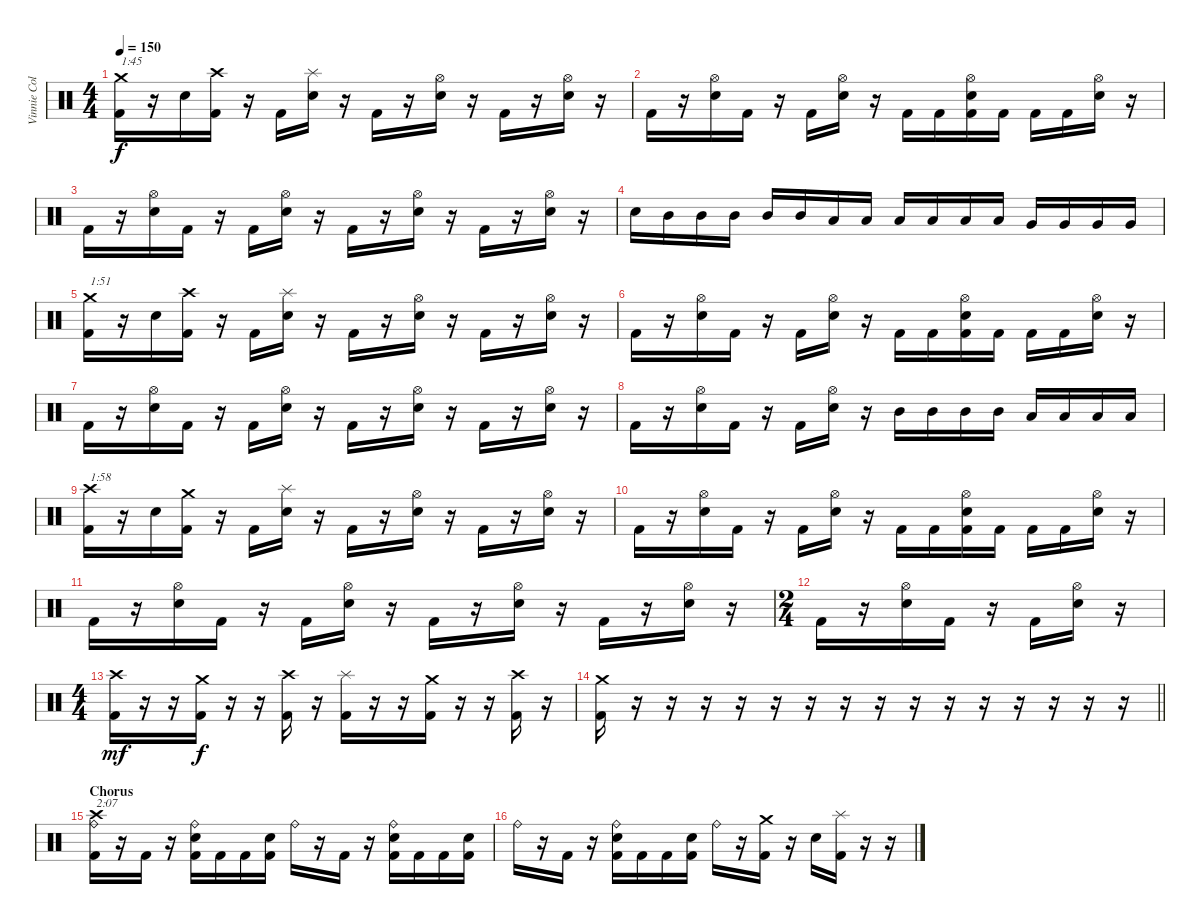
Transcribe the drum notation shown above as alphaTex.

\track ("Vinnie Colaiuta" "Vinnie Col") {instrument percussion}
\staff {score}
\articulation defaults
\ts (4 4)
\tempo 150
\clef neutral
\ks c
("Crash medium (hit)" "Kick (hit) 2").16{txt "1:45" dy f} r.16 "Electric Snare (hit)".16 ("Crash high (hit)" "Kick (hit) 2").16 r.16 "Kick (hit) 2".16 ("Splash (hit)" "Electric Snare (hit)").16 r.16 "Kick (hit) 2".16 r.16 ("Hi-Hat (open)" "Electric Snare (hit)").16 r.16 "Kick (hit) 2".16 r.16 ("Hi-Hat (open)" "Electric Snare (hit)").16 r.16 |
"Kick (hit) 2".16 r.16 ("Hi-Hat (open)" "Electric Snare (hit)").16 "Kick (hit) 2".16 r.16 "Kick (hit) 2".16 ("Hi-Hat (open)" "Electric Snare (hit)").16 r.16 "Kick (hit) 2".16 "Kick (hit) 2".16 ("Hi-Hat (open)" "Electric Snare (hit)" "Kick (hit) 2").16 "Kick (hit) 2".16 "Kick (hit) 2".16 "Kick (hit) 2".16 ("Hi-Hat (open)" "Electric Snare (hit)").16 r.16 |
"Kick (hit) 2".16 r.16 ("Hi-Hat (open)" "Electric Snare (hit)").16 "Kick (hit) 2".16 r.16 "Kick (hit) 2".16 ("Hi-Hat (open)" "Electric Snare (hit)").16 r.16 "Kick (hit) 2".16 r.16 ("Hi-Hat (open)" "Electric Snare (hit)").16 r.16 "Kick (hit) 2".16 r.16 ("Hi-Hat (open)" "Electric Snare (hit)").16 r.16 |
"Electric Snare (hit)".16 "Mid Tom (hit)".16 "Mid Tom (hit)".16 "Mid Tom (hit)".16 "Mid Tom (hit)".16 "Mid Tom (hit)".16 "Low Tom (hit)".16 "Low Tom (hit)".16 "Low Tom (hit)".16 "Low Tom (hit)".16 "Low Tom (hit)".16 "Low Tom (hit)".16 "Very Low Tom (hit)".16 "Very Low Tom (hit)".16 "Very Low Tom (hit)".16 "Very Low Tom (hit)".16 |
("Crash medium (hit)" "Kick (hit) 2").16{txt "1:51"} r.16 "Electric Snare (hit)".16 ("Crash high (hit)" "Kick (hit) 2").16 r.16 "Kick (hit) 2".16 ("Splash (hit)" "Electric Snare (hit)").16 r.16 "Kick (hit) 2".16 r.16 ("Hi-Hat (open)" "Electric Snare (hit)").16 r.16 "Kick (hit) 2".16 r.16 ("Hi-Hat (open)" "Electric Snare (hit)").16 r.16 |
"Kick (hit) 2".16 r.16 ("Hi-Hat (open)" "Electric Snare (hit)").16 "Kick (hit) 2".16 r.16 "Kick (hit) 2".16 ("Hi-Hat (open)" "Electric Snare (hit)").16 r.16 "Kick (hit) 2".16 "Kick (hit) 2".16 ("Hi-Hat (open)" "Electric Snare (hit)" "Kick (hit) 2").16 "Kick (hit) 2".16 "Kick (hit) 2".16 "Kick (hit) 2".16 ("Hi-Hat (open)" "Electric Snare (hit)").16 r.16 |
"Kick (hit) 2".16 r.16 ("Hi-Hat (open)" "Electric Snare (hit)").16 "Kick (hit) 2".16 r.16 "Kick (hit) 2".16 ("Hi-Hat (open)" "Electric Snare (hit)").16 r.16 "Kick (hit) 2".16 r.16 ("Hi-Hat (open)" "Electric Snare (hit)").16 r.16 "Kick (hit) 2".16 r.16 ("Hi-Hat (open)" "Electric Snare (hit)").16 r.16 |
"Kick (hit) 2".16 r.16 ("Hi-Hat (open)" "Electric Snare (hit)").16 "Kick (hit) 2".16 r.16 "Kick (hit) 2".16 ("Hi-Hat (open)" "Electric Snare (hit)").16 r.16 "Mid Tom (hit)".16 "Mid Tom (hit)".16 "Mid Tom (hit)".16 "Mid Tom (hit)".16 "Low Tom (hit)".16 "Low Tom (hit)".16 "Low Tom (hit)".16 "Low Tom (hit)".16 |
("Crash high (hit)" "Kick (hit) 2").16{txt "1:58"} r.16 "Electric Snare (hit)".16 ("Crash medium (hit)" "Kick (hit) 2").16 r.16 "Kick (hit) 2".16 ("Splash (hit)" "Electric Snare (hit)").16 r.16 "Kick (hit) 2".16 r.16 ("Hi-Hat (open)" "Electric Snare (hit)").16 r.16 "Kick (hit) 2".16 r.16 ("Hi-Hat (open)" "Electric Snare (hit)").16 r.16 |
"Kick (hit) 2".16 r.16 ("Hi-Hat (open)" "Electric Snare (hit)").16 "Kick (hit) 2".16 r.16 "Kick (hit) 2".16 ("Hi-Hat (open)" "Electric Snare (hit)").16 r.16 "Kick (hit) 2".16 "Kick (hit) 2".16 ("Hi-Hat (open)" "Electric Snare (hit)" "Kick (hit) 2").16 "Kick (hit) 2".16 "Kick (hit) 2".16 "Kick (hit) 2".16 ("Hi-Hat (open)" "Electric Snare (hit)").16 r.16 |
"Kick (hit) 2".16 r.16 ("Hi-Hat (open)" "Electric Snare (hit)").16 "Kick (hit) 2".16 r.16 "Kick (hit) 2".16 ("Hi-Hat (open)" "Electric Snare (hit)").16 r.16 "Kick (hit) 2".16 r.16 ("Hi-Hat (open)" "Electric Snare (hit)").16 r.16 "Kick (hit) 2".16 r.16 ("Hi-Hat (open)" "Electric Snare (hit)").16 r.16 |
\ts (2 4)
"Kick (hit) 2".16 r.16 ("Hi-Hat (open)" "Electric Snare (hit)").16 "Kick (hit) 2".16 r.16 "Kick (hit) 2".16 ("Hi-Hat (open)" "Electric Snare (hit)").16 r.16 |
\ts (4 4)
("Crash high (hit)" "Kick (hit) 2").16{dy mf} r.16 r.16 ("Crash medium (hit)" "Kick (hit) 2").16{dy f} r.16 r.16 ("Crash high (hit)" "Kick (hit) 2").16 r.16 ("Splash (hit)" "Kick (hit) 2").16 r.16 r.16 ("Crash medium (hit)" "Kick (hit) 2").16 r.16 r.16 ("Crash high (hit)" "Kick (hit) 2").16 r.16 |
\barLineRight lightlight
("Crash medium (hit)" "Kick (hit) 2").16 r.16 r.16 r.16 r.16 r.16 r.16 r.16 r.16 r.16 r.16 r.16 r.16 r.16 r.16 r.16 |
\section ("" "Chorus")
("Crash high (hit)" "Ride (bell)" "Kick (hit) 2").16{txt "2:07"} r.16 "Kick (hit) 2".16 r.16 ("Ride (bell)" "Electric Snare (hit)" "Kick (hit) 2").16 "Kick (hit) 2".16 "Kick (hit) 2".16 ("Electric Snare (hit)" "Kick (hit) 2").16 "Ride (bell)".16 r.16 "Kick (hit) 2".16 r.16 ("Ride (bell)" "Electric Snare (hit)" "Kick (hit) 2").16 "Kick (hit) 2".16 "Kick (hit) 2".16 ("Electric Snare (hit)" "Kick (hit) 2").16 |
"Ride (bell)".16 r.16 "Kick (hit) 2".16 r.16 ("Ride (bell)" "Electric Snare (hit)" "Kick (hit) 2").16 "Kick (hit) 2".16 "Kick (hit) 2".16 ("Electric Snare (hit)" "Kick (hit) 2").16 "Ride (bell)".16 r.16 ("Crash medium (hit)" "Kick (hit) 2").16 r.16 "Electric Snare (hit)".16 ("Splash (hit)" "Kick (hit) 2").16 r.16 r.16
